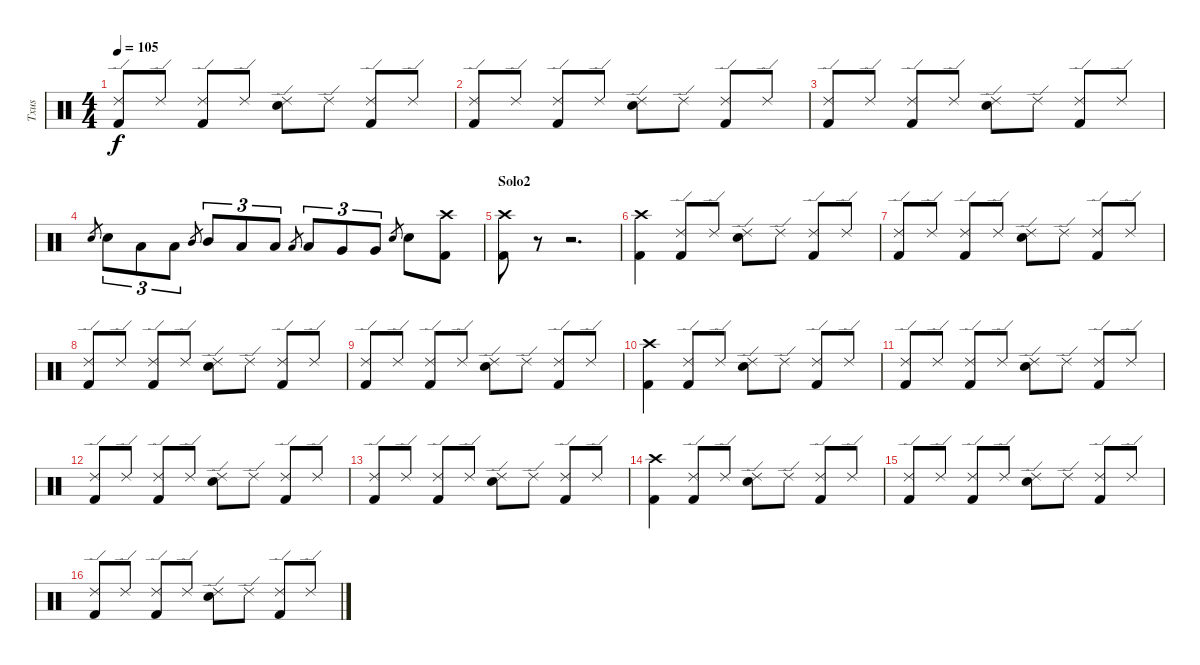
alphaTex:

\track ("Txus" "Txus") {instrument percussion}
\staff {score}
\articulation defaults
\ts (4 4)
\tempo 105
\clef neutral
\ks c
("Ride (edge) 2" "Kick (hit) 2").8{dy f} "Ride (edge) 2".8 ("Ride (edge) 2" "Kick (hit) 2").8 "Ride (edge) 2".8 ("Ride (edge) 2" "Electric Snare (hit)").8 "Ride (edge) 2".8 ("Ride (edge) 2" "Kick (hit) 2").8 "Ride (edge) 2".8 |
("Ride (edge) 2" "Kick (hit) 2").8 "Ride (edge) 2".8 ("Ride (edge) 2" "Kick (hit) 2").8 "Ride (edge) 2".8 ("Ride (edge) 2" "Electric Snare (hit)").8 "Ride (edge) 2".8 ("Ride (edge) 2" "Kick (hit) 2").8 "Ride (edge) 2".8 |
("Ride (edge) 2" "Kick (hit) 2").8 "Ride (edge) 2".8 ("Ride (edge) 2" "Kick (hit) 2").8 "Ride (edge) 2".8 ("Ride (edge) 2" "Electric Snare (hit)").8 "Ride (edge) 2".8 ("Ride (edge) 2" "Kick (hit) 2").8 "Ride (edge) 2".8 |
"Electric Snare (hit)".8{gr} "Electric Snare (hit)".8{tu (3 2)} "Low Tom (hit)".8{tu (3 2)} "Low Tom (hit)".8{tu (3 2)} "Mid Tom (hit)".8{gr} "Mid Tom (hit)".8{tu (3 2)} "Low Tom (hit)".8{tu (3 2)} "Low Tom (hit)".8{tu (3 2)} "Low Tom (hit)".8{gr} "Low Tom (hit)".8{tu (3 2)} "Very Low Tom (hit)".8{tu (3 2)} "Very Low Tom (hit)".8{tu (3 2)} "Electric Snare (hit)".8{gr} "Electric Snare (hit)".8 ("Crash high (hit)" "Kick (hit) 2").8 |
\section ("" "Solo2")
("Crash high (hit)" "Kick (hit) 2").8 r.8{volume 0} r.2{d} |
("Crash high (hit)" "Kick (hit) 2").4{volume 13} ("Ride (edge) 2" "Kick (hit) 2").8 "Ride (edge) 2".8 ("Ride (edge) 2" "Electric Snare (hit)").8 "Ride (edge) 2".8 ("Ride (edge) 2" "Kick (hit) 2").8 "Ride (edge) 2".8 |
("Ride (edge) 2" "Kick (hit) 2").8 "Ride (edge) 2".8 ("Ride (edge) 2" "Kick (hit) 2").8 "Ride (edge) 2".8 ("Ride (edge) 2" "Electric Snare (hit)").8 "Ride (edge) 2".8 ("Ride (edge) 2" "Kick (hit) 2").8 "Ride (edge) 2".8 |
("Ride (edge) 2" "Kick (hit) 2").8 "Ride (edge) 2".8 ("Ride (edge) 2" "Kick (hit) 2").8 "Ride (edge) 2".8 ("Ride (edge) 2" "Electric Snare (hit)").8 "Ride (edge) 2".8 ("Ride (edge) 2" "Kick (hit) 2").8 "Ride (edge) 2".8 |
("Ride (edge) 2" "Kick (hit) 2").8 "Ride (edge) 2".8 ("Ride (edge) 2" "Kick (hit) 2").8 "Ride (edge) 2".8 ("Ride (edge) 2" "Electric Snare (hit)").8 "Ride (edge) 2".8 ("Ride (edge) 2" "Kick (hit) 2").8 "Ride (edge) 2".8 |
("Crash high (hit)" "Kick (hit) 2").4 ("Ride (edge) 2" "Kick (hit) 2").8 "Ride (edge) 2".8 ("Ride (edge) 2" "Electric Snare (hit)").8 "Ride (edge) 2".8 ("Ride (edge) 2" "Kick (hit) 2").8 "Ride (edge) 2".8 |
("Ride (edge) 2" "Kick (hit) 2").8 "Ride (edge) 2".8 ("Ride (edge) 2" "Kick (hit) 2").8 "Ride (edge) 2".8 ("Ride (edge) 2" "Electric Snare (hit)").8 "Ride (edge) 2".8 ("Ride (edge) 2" "Kick (hit) 2").8 "Ride (edge) 2".8 |
("Ride (edge) 2" "Kick (hit) 2").8 "Ride (edge) 2".8 ("Ride (edge) 2" "Kick (hit) 2").8 "Ride (edge) 2".8 ("Ride (edge) 2" "Electric Snare (hit)").8 "Ride (edge) 2".8 ("Ride (edge) 2" "Kick (hit) 2").8 "Ride (edge) 2".8 |
("Ride (edge) 2" "Kick (hit) 2").8 "Ride (edge) 2".8 ("Ride (edge) 2" "Kick (hit) 2").8 "Ride (edge) 2".8 ("Ride (edge) 2" "Electric Snare (hit)").8 "Ride (edge) 2".8 ("Ride (edge) 2" "Kick (hit) 2").8 "Ride (edge) 2".8 |
("Crash high (hit)" "Kick (hit) 2").4 ("Ride (edge) 2" "Kick (hit) 2").8 "Ride (edge) 2".8 ("Ride (edge) 2" "Electric Snare (hit)").8 "Ride (edge) 2".8 ("Ride (edge) 2" "Kick (hit) 2").8 "Ride (edge) 2".8 |
("Ride (edge) 2" "Kick (hit) 2").8 "Ride (edge) 2".8 ("Ride (edge) 2" "Kick (hit) 2").8 "Ride (edge) 2".8 ("Ride (edge) 2" "Electric Snare (hit)").8 "Ride (edge) 2".8 ("Ride (edge) 2" "Kick (hit) 2").8 "Ride (edge) 2".8 |
("Ride (edge) 2" "Kick (hit) 2").8 "Ride (edge) 2".8 ("Ride (edge) 2" "Kick (hit) 2").8 "Ride (edge) 2".8 ("Ride (edge) 2" "Electric Snare (hit)").8 "Ride (edge) 2".8 ("Ride (edge) 2" "Kick (hit) 2").8 "Ride (edge) 2".8
